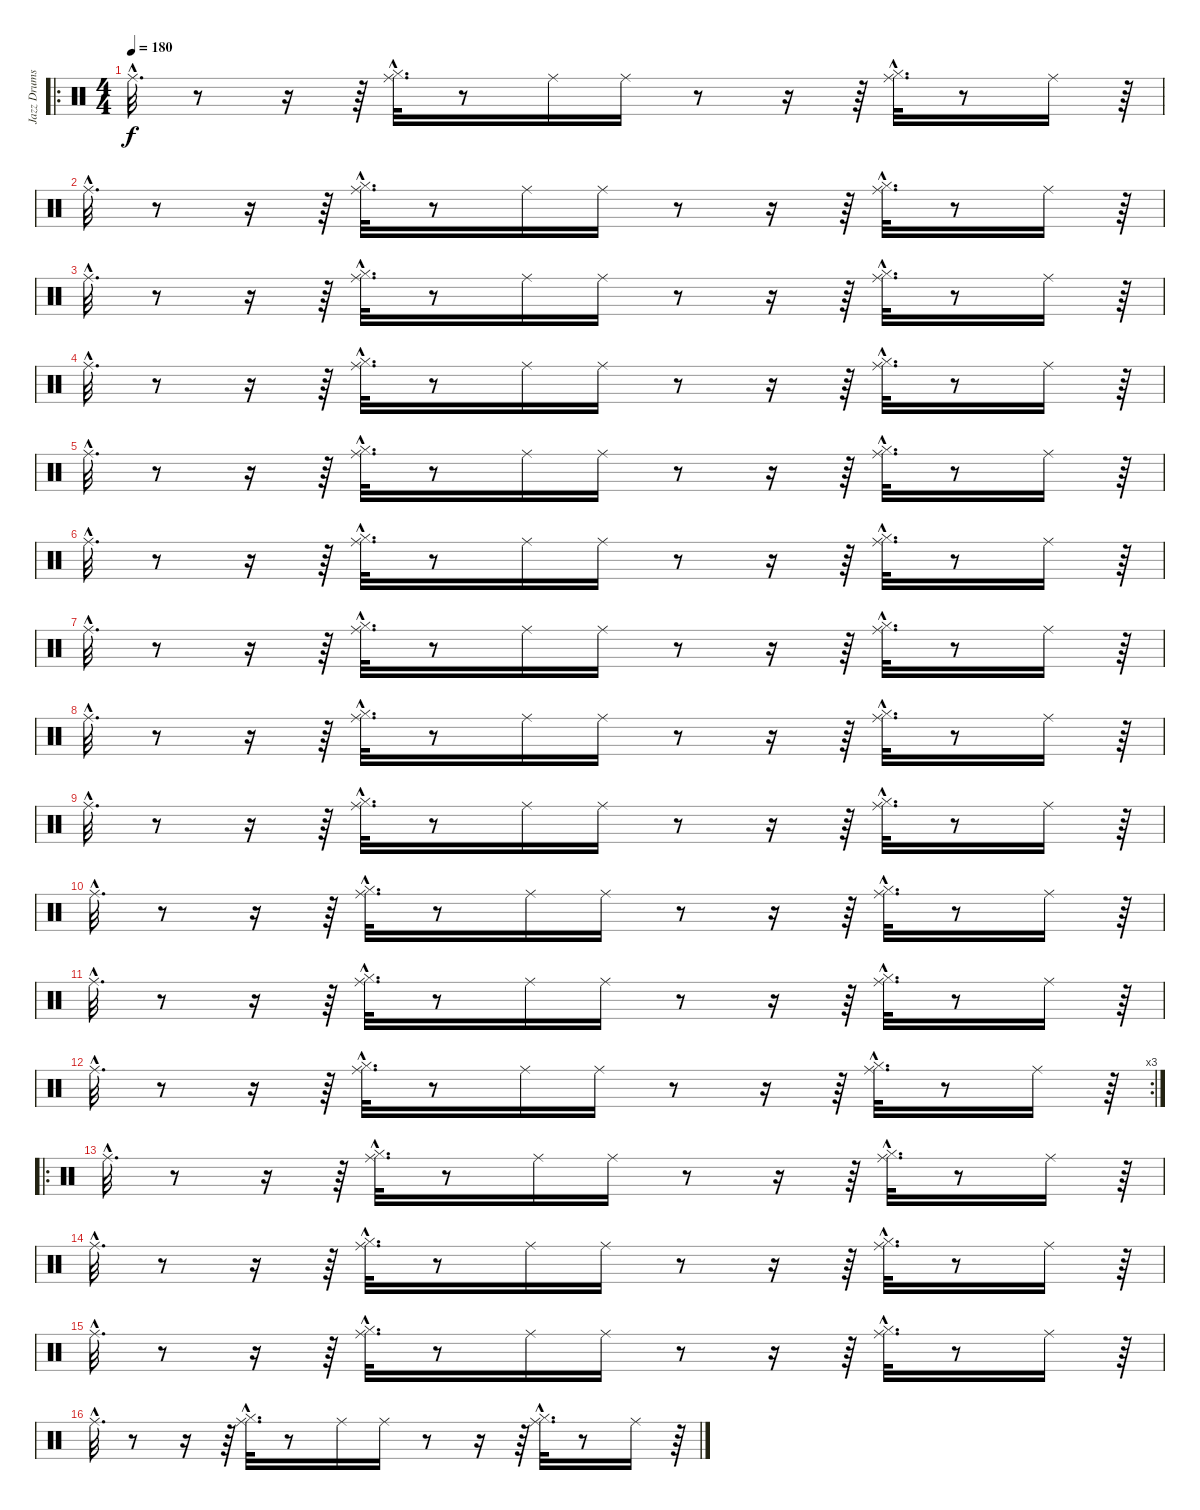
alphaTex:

\track ("Jazz Drums" "Jazz Drums") {instrument percussion}
\staff {score}
\articulation defaults
\ro
\ts (4 4)
\tempo 180
\clef neutral
\ks c "Ride (middle)"{hac}.32{d dy f}
r.8 r.16 r.64 ("Hi-Hat (closed)"{hac} "Ride (middle)"{hac}).32{d} r.8 "Ride (middle)".16 "Ride (middle)".16 r.8 r.16 r.64 ("Hi-Hat (closed)"{hac} "Ride (middle)"{hac}).32{d} r.8 "Ride (middle)".16 r.64 |
"Ride (middle)"{hac}.32{d} r.8 r.16 r.64 ("Hi-Hat (closed)"{hac} "Ride (middle)"{hac}).32{d} r.8 "Ride (middle)".16 "Ride (middle)".16 r.8 r.16 r.64 ("Hi-Hat (closed)"{hac} "Ride (middle)"{hac}).32{d} r.8 "Ride (middle)".16 r.64 |
"Ride (middle)"{hac}.32{d} r.8 r.16 r.64 ("Hi-Hat (closed)"{hac} "Ride (middle)"{hac}).32{d} r.8 "Ride (middle)".16 "Ride (middle)".16 r.8 r.16 r.64 ("Hi-Hat (closed)"{hac} "Ride (middle)"{hac}).32{d} r.8 "Ride (middle)".16 r.64 |
"Ride (middle)"{hac}.32{d} r.8 r.16 r.64 ("Hi-Hat (closed)"{hac} "Ride (middle)"{hac}).32{d} r.8 "Ride (middle)".16 "Ride (middle)".16 r.8 r.16 r.64 ("Hi-Hat (closed)"{hac} "Ride (middle)"{hac}).32{d} r.8 "Ride (middle)".16 r.64 |
"Ride (middle)"{hac}.32{d} r.8 r.16 r.64 ("Hi-Hat (closed)"{hac} "Ride (middle)"{hac}).32{d} r.8 "Ride (middle)".16 "Ride (middle)".16 r.8 r.16 r.64 ("Hi-Hat (closed)"{hac} "Ride (middle)"{hac}).32{d} r.8 "Ride (middle)".16 r.64 |
"Ride (middle)"{hac}.32{d} r.8 r.16 r.64 ("Hi-Hat (closed)"{hac} "Ride (middle)"{hac}).32{d} r.8 "Ride (middle)".16 "Ride (middle)".16 r.8 r.16 r.64 ("Hi-Hat (closed)"{hac} "Ride (middle)"{hac}).32{d} r.8 "Ride (middle)".16 r.64 |
"Ride (middle)"{hac}.32{d} r.8 r.16 r.64 ("Hi-Hat (closed)"{hac} "Ride (middle)"{hac}).32{d} r.8 "Ride (middle)".16 "Ride (middle)".16 r.8 r.16 r.64 ("Hi-Hat (closed)"{hac} "Ride (middle)"{hac}).32{d} r.8 "Ride (middle)".16 r.64 |
"Ride (middle)"{hac}.32{d} r.8 r.16 r.64 ("Hi-Hat (closed)"{hac} "Ride (middle)"{hac}).32{d} r.8 "Ride (middle)".16 "Ride (middle)".16 r.8 r.16 r.64 ("Hi-Hat (closed)"{hac} "Ride (middle)"{hac}).32{d} r.8 "Ride (middle)".16 r.64 |
"Ride (middle)"{hac}.32{d} r.8 r.16 r.64 ("Hi-Hat (closed)"{hac} "Ride (middle)"{hac}).32{d} r.8 "Ride (middle)".16 "Ride (middle)".16 r.8 r.16 r.64 ("Hi-Hat (closed)"{hac} "Ride (middle)"{hac}).32{d} r.8 "Ride (middle)".16 r.64 |
"Ride (middle)"{hac}.32{d} r.8 r.16 r.64 ("Hi-Hat (closed)"{hac} "Ride (middle)"{hac}).32{d} r.8 "Ride (middle)".16 "Ride (middle)".16 r.8 r.16 r.64 ("Hi-Hat (closed)"{hac} "Ride (middle)"{hac}).32{d} r.8 "Ride (middle)".16 r.64 |
"Ride (middle)"{hac}.32{d} r.8 r.16 r.64 ("Hi-Hat (closed)"{hac} "Ride (middle)"{hac}).32{d} r.8 "Ride (middle)".16 "Ride (middle)".16 r.8 r.16 r.64 ("Hi-Hat (closed)"{hac} "Ride (middle)"{hac}).32{d} r.8 "Ride (middle)".16 r.64 |
\rc 3 "Ride (middle)"{hac}.32{d}
r.8 r.16 r.64 ("Hi-Hat (closed)"{hac} "Ride (middle)"{hac}).32{d} r.8 "Ride (middle)".16 "Ride (middle)".16 r.8 r.16 r.64 ("Hi-Hat (closed)"{hac} "Ride (middle)"{hac}).32{d} r.8 "Ride (middle)".16 r.64 |
\ro "Ride (middle)"{hac}.32{d}
r.8 r.16 r.64 ("Hi-Hat (closed)"{hac} "Ride (middle)"{hac}).32{d} r.8 "Ride (middle)".16 "Ride (middle)".16 r.8 r.16 r.64 ("Hi-Hat (closed)"{hac} "Ride (middle)"{hac}).32{d} r.8 "Ride (middle)".16 r.64 |
"Ride (middle)"{hac}.32{d} r.8 r.16 r.64 ("Hi-Hat (closed)"{hac} "Ride (middle)"{hac}).32{d} r.8 "Ride (middle)".16 "Ride (middle)".16 r.8 r.16 r.64 ("Hi-Hat (closed)"{hac} "Ride (middle)"{hac}).32{d} r.8 "Ride (middle)".16 r.64 |
"Ride (middle)"{hac}.32{d} r.8 r.16 r.64 ("Hi-Hat (closed)"{hac} "Ride (middle)"{hac}).32{d} r.8 "Ride (middle)".16 "Ride (middle)".16 r.8 r.16 r.64 ("Hi-Hat (closed)"{hac} "Ride (middle)"{hac}).32{d} r.8 "Ride (middle)".16 r.64 |
"Ride (middle)"{hac}.32{d} r.8 r.16 r.64 ("Hi-Hat (closed)"{hac} "Ride (middle)"{hac}).32{d} r.8 "Ride (middle)".16 "Ride (middle)".16 r.8 r.16 r.64 ("Hi-Hat (closed)"{hac} "Ride (middle)"{hac}).32{d} r.8 "Ride (middle)".16 r.64
